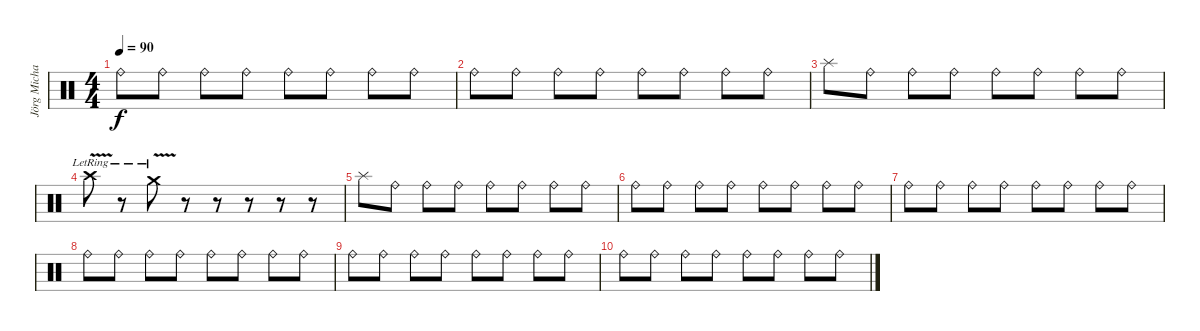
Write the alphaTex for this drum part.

\track ("Jörg Michael Drums" "Jörg Micha") {instrument percussion}
\staff {score}
\articulation defaults
\ts (4 4)
\tempo 90
\clef neutral
\ks c "Ride (bell)".8{dy f volume 8} "Ride (bell)".8 "Ride (bell)".8 "Ride (bell)".8 "Ride (bell)".8 "Ride (bell)".8 "Ride (bell)".8 "Ride (bell)".8
|
"Ride (bell)".8 "Ride (bell)".8 "Ride (bell)".8 "Ride (bell)".8 "Ride (bell)".8 "Ride (bell)".8 "Ride (bell)".8 "Ride (bell)".8 |
"Splash (hit)".8 "Ride (bell)".8 "Ride (bell)".8 "Ride (bell)".8 "Ride (bell)".8 "Ride (bell)".8 "Ride (bell)".8 "Ride (bell)".8 |
"Crash high (hit)"{v lr}.8 r.8 "Crash medium (hit)"{v lr}.8 r.8 r.8 r.8 r.8 r.8 |
"Splash (hit)".8 "Ride (bell)".8 "Ride (bell)".8 "Ride (bell)".8 "Ride (bell)".8 "Ride (bell)".8 "Ride (bell)".8 "Ride (bell)".8 |
"Ride (bell)".8 "Ride (bell)".8 "Ride (bell)".8 "Ride (bell)".8 "Ride (bell)".8 "Ride (bell)".8 "Ride (bell)".8 "Ride (bell)".8 |
"Ride (bell)".8{volume 0} "Ride (bell)".8 "Ride (bell)".8 "Ride (bell)".8 "Ride (bell)".8 "Ride (bell)".8 "Ride (bell)".8 "Ride (bell)".8 |
"Ride (bell)".8 "Ride (bell)".8 "Ride (bell)".8 "Ride (bell)".8 "Ride (bell)".8 "Ride (bell)".8 "Ride (bell)".8 "Ride (bell)".8 |
"Ride (bell)".8 "Ride (bell)".8 "Ride (bell)".8 "Ride (bell)".8 "Ride (bell)".8 "Ride (bell)".8 "Ride (bell)".8 "Ride (bell)".8 |
"Ride (bell)".8 "Ride (bell)".8 "Ride (bell)".8 "Ride (bell)".8 "Ride (bell)".8 "Ride (bell)".8 "Ride (bell)".8 "Ride (bell)".8
